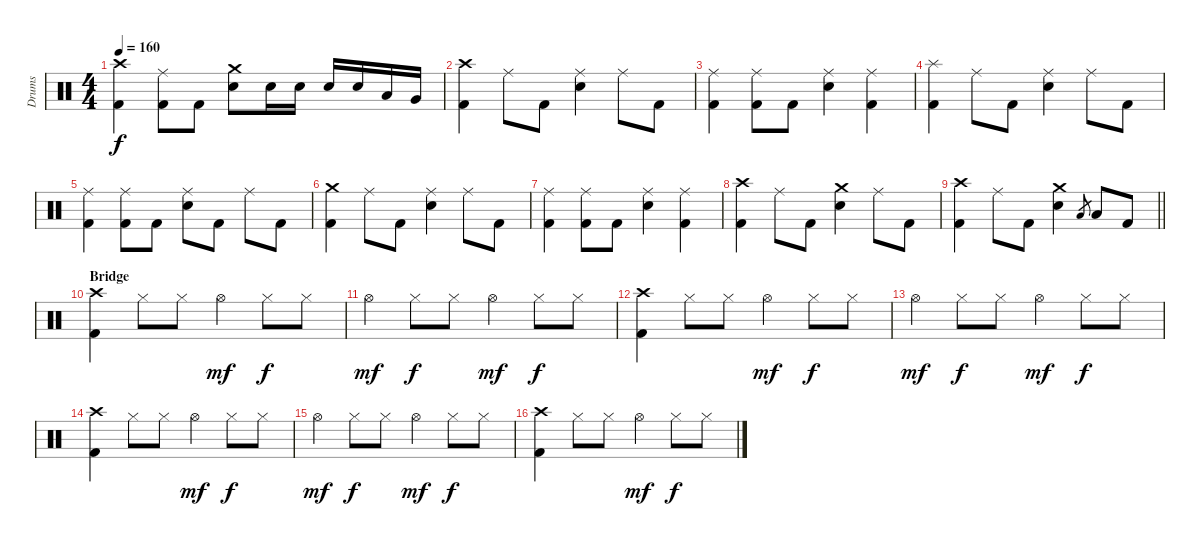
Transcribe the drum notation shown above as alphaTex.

\track ("Drums" "Drums") {instrument percussion}
\staff {score}
\articulation defaults
\ts (4 4)
\tempo 160
\clef neutral
\ks c
("Kick (hit) 2" "Crash high (hit)").4{dy f} ("Kick (hit) 2" "Ride (middle)").8 "Kick (hit) 2".8 ("Crash medium (hit)" "Electric Snare (hit)").8 "Electric Snare (hit)".16 "Electric Snare (hit)".16 "Electric Snare (hit)".16 "Electric Snare (hit)".16 "Low Tom (hit)".16 "Very Low Tom (hit)".16 |
("Kick (hit) 2" "Crash high (hit)").4 "Ride (middle)".8 "Kick (hit) 2".8 ("Ride (middle)" "Electric Snare (hit)").4 "Ride (middle)".8 "Kick (hit) 2".8 |
("Kick (hit) 2" "Ride (middle)").4 ("Kick (hit) 2" "Ride (middle)").8 "Kick (hit) 2".8 ("Ride (middle)" "Electric Snare (hit)").4 ("Kick (hit) 2" "Ride (middle)").4 |
("Kick (hit) 2" "Splash (hit)").4 "Ride (middle)".8 "Kick (hit) 2".8 ("Ride (middle)" "Electric Snare (hit)").4 "Ride (middle)".8 "Kick (hit) 2".8 |
("Kick (hit) 2" "Ride (middle)").4 ("Kick (hit) 2" "Ride (middle)").8 "Kick (hit) 2".8 ("Ride (middle)" "Electric Snare (hit)").8 "Kick (hit) 2".8 "Ride (middle)".8 "Kick (hit) 2".8 |
("Kick (hit) 2" "Crash medium (hit)").4 "Ride (middle)".8 "Kick (hit) 2".8 ("Ride (middle)" "Electric Snare (hit)").4 "Ride (middle)".8 "Kick (hit) 2".8 |
("Kick (hit) 2" "Ride (middle)").4 ("Kick (hit) 2" "Ride (middle)").8 "Kick (hit) 2".8 ("Ride (middle)" "Electric Snare (hit)").4 ("Kick (hit) 2" "Ride (middle)").4 |
("Kick (hit) 2" "Crash high (hit)").4 "Ride (middle)".8 "Kick (hit) 2".8 ("Crash medium (hit)" "Electric Snare (hit)").4 "Ride (middle)".8 "Kick (hit) 2".8 |
\barLineRight lightlight
("Kick (hit) 2" "Crash high (hit)").4 "Ride (middle)".8 "Kick (hit) 2".8 ("Crash medium (hit)" "Electric Snare (hit)").4 "Low Tom (hit)".8{gr} "Low Tom (hit)".8 "Kick (hit) 2".8 |
\section ("" "Bridge")
("Kick (hit) 2" "Crash high (hit)").4 "Hi-Hat (closed)".8 "Hi-Hat (closed)".8 "Hi-Hat (open)".4{dy mf} "Hi-Hat (closed)".8{dy f} "Hi-Hat (closed)".8 |
"Hi-Hat (open)".4{dy mf} "Hi-Hat (closed)".8{dy f} "Hi-Hat (closed)".8 "Hi-Hat (open)".4{dy mf} "Hi-Hat (closed)".8{dy f} "Hi-Hat (closed)".8 |
("Kick (hit) 2" "Crash high (hit)").4 "Hi-Hat (closed)".8 "Hi-Hat (closed)".8 "Hi-Hat (open)".4{dy mf} "Hi-Hat (closed)".8{dy f} "Hi-Hat (closed)".8 |
"Hi-Hat (open)".4{dy mf} "Hi-Hat (closed)".8{dy f} "Hi-Hat (closed)".8 "Hi-Hat (open)".4{dy mf} "Hi-Hat (closed)".8{dy f} "Hi-Hat (closed)".8 |
("Kick (hit) 2" "Crash high (hit)").4 "Hi-Hat (closed)".8 "Hi-Hat (closed)".8 "Hi-Hat (open)".4{dy mf} "Hi-Hat (closed)".8{dy f} "Hi-Hat (closed)".8 |
"Hi-Hat (open)".4{dy mf} "Hi-Hat (closed)".8{dy f} "Hi-Hat (closed)".8 "Hi-Hat (open)".4{dy mf} "Hi-Hat (closed)".8{dy f} "Hi-Hat (closed)".8 |
("Kick (hit) 2" "Crash high (hit)").4 "Hi-Hat (closed)".8 "Hi-Hat (closed)".8 "Hi-Hat (open)".4{dy mf} "Hi-Hat (closed)".8{dy f} "Hi-Hat (closed)".8
